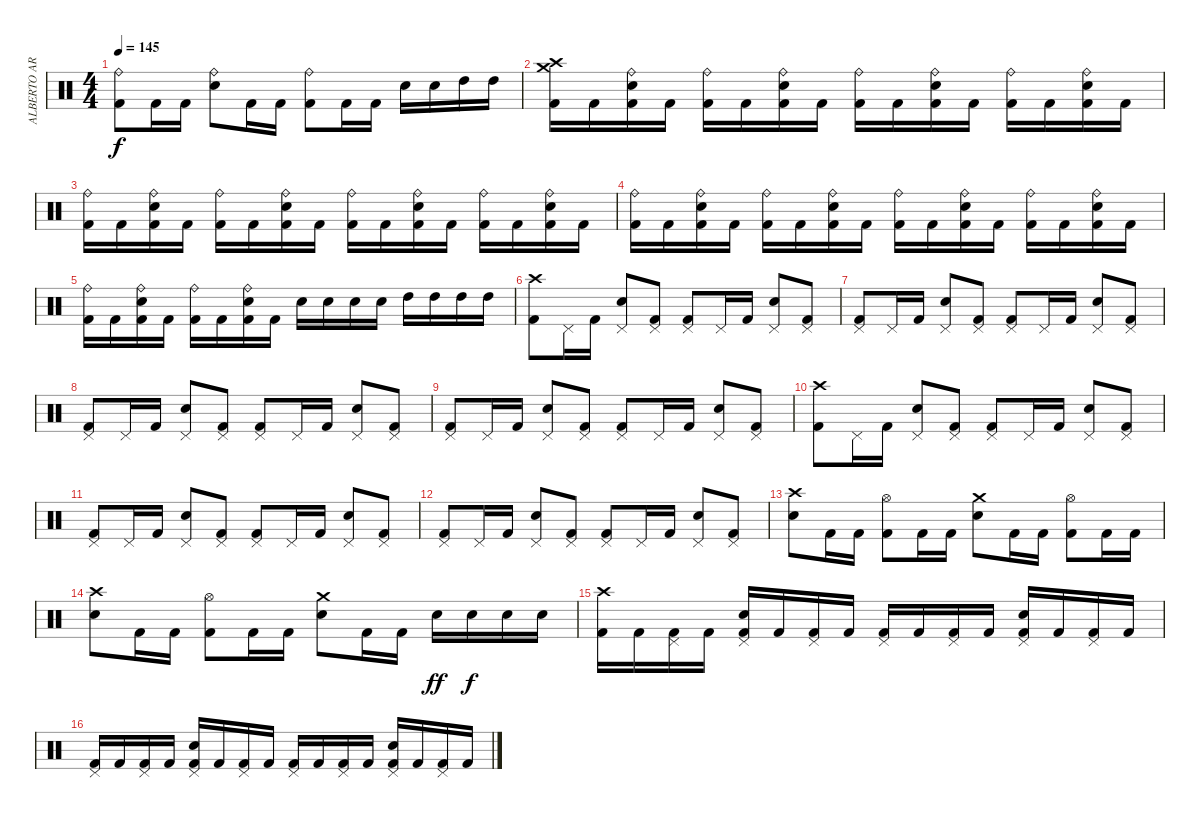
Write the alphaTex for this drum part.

\track ("ALBERTO ARDINES" "ALBERTO AR") {instrument percussion}
\staff {score}
\articulation defaults
\ts (4 4)
\tempo 145
\clef neutral
\ks c
("Ride (bell)" "Kick (hit) 2").8{dy f} "Kick (hit) 2".16 "Kick (hit) 2".16 ("Ride (bell)" "Electric Snare (hit)").8 "Kick (hit) 2".16 "Kick (hit) 2".16 ("Ride (bell)" "Kick (hit) 2").8 "Kick (hit) 2".16 "Kick (hit) 2".16 "Electric Snare (hit)".16 "Electric Snare (hit)".16 "High Tom (hit)".16 "High Tom (hit)".16 |
("Crash high (hit)" "Crash medium (hit)" "Kick (hit) 2").16 "Kick (hit) 2".16 ("Ride (bell)" "Electric Snare (hit)" "Kick (hit) 2").16 "Kick (hit) 2".16 ("Ride (bell)" "Kick (hit) 2").16 "Kick (hit) 2".16 ("Ride (bell)" "Electric Snare (hit)" "Kick (hit) 2").16 "Kick (hit) 2".16 ("Ride (bell)" "Kick (hit) 2").16 "Kick (hit) 2".16 ("Ride (bell)" "Electric Snare (hit)" "Kick (hit) 2").16 "Kick (hit) 2".16 ("Ride (bell)" "Kick (hit) 2").16 "Kick (hit) 2".16 ("Ride (bell)" "Electric Snare (hit)" "Kick (hit) 2").16 "Kick (hit) 2".16 |
("Ride (bell)" "Kick (hit) 2").16 "Kick (hit) 2".16 ("Ride (bell)" "Electric Snare (hit)" "Kick (hit) 2").16 "Kick (hit) 2".16 ("Ride (bell)" "Kick (hit) 2").16 "Kick (hit) 2".16 ("Ride (bell)" "Electric Snare (hit)" "Kick (hit) 2").16 "Kick (hit) 2".16 ("Ride (bell)" "Kick (hit) 2").16 "Kick (hit) 2".16 ("Ride (bell)" "Electric Snare (hit)" "Kick (hit) 2").16 "Kick (hit) 2".16 ("Ride (bell)" "Kick (hit) 2").16 "Kick (hit) 2".16 ("Ride (bell)" "Electric Snare (hit)" "Kick (hit) 2").16 "Kick (hit) 2".16 |
("Ride (bell)" "Kick (hit) 2").16 "Kick (hit) 2".16 ("Ride (bell)" "Electric Snare (hit)" "Kick (hit) 2").16 "Kick (hit) 2".16 ("Ride (bell)" "Kick (hit) 2").16 "Kick (hit) 2".16 ("Ride (bell)" "Electric Snare (hit)" "Kick (hit) 2").16 "Kick (hit) 2".16 ("Ride (bell)" "Kick (hit) 2").16 "Kick (hit) 2".16 ("Ride (bell)" "Electric Snare (hit)" "Kick (hit) 2").16 "Kick (hit) 2".16 ("Ride (bell)" "Kick (hit) 2").16 "Kick (hit) 2".16 ("Ride (bell)" "Electric Snare (hit)" "Kick (hit) 2").16 "Kick (hit) 2".16 |
("Ride (bell)" "Kick (hit) 2").16 "Kick (hit) 2".16 ("Ride (bell)" "Electric Snare (hit)" "Kick (hit) 2").16 "Kick (hit) 2".16 ("Ride (bell)" "Kick (hit) 2").16 "Kick (hit) 2".16 ("Ride (bell)" "Electric Snare (hit)" "Kick (hit) 2").16 "Kick (hit) 2".16 "Electric Snare (hit)".16 "Electric Snare (hit)".16 "Electric Snare (hit)".16 "Electric Snare (hit)".16 "High Tom (hit)".16 "High Tom (hit)".16 "High Tom (hit)".16 "High Tom (hit)".16 |
("Crash high (hit)" "Kick (hit) 2").8 "Pedal Hi-Hat (hit)".16 "Kick (hit) 2".16 ("Pedal Hi-Hat (hit)" "Electric Snare (hit)").8 ("Pedal Hi-Hat (hit)" "Kick (hit) 2").8 ("Pedal Hi-Hat (hit)" "Kick (hit) 2").8 "Pedal Hi-Hat (hit)".16 "Kick (hit) 2".16 ("Pedal Hi-Hat (hit)" "Electric Snare (hit)").8 ("Pedal Hi-Hat (hit)" "Kick (hit) 2").8 |
("Pedal Hi-Hat (hit)" "Kick (hit) 2").8 "Pedal Hi-Hat (hit)".16 "Kick (hit) 2".16 ("Pedal Hi-Hat (hit)" "Electric Snare (hit)").8 ("Pedal Hi-Hat (hit)" "Kick (hit) 2").8 ("Pedal Hi-Hat (hit)" "Kick (hit) 2").8 "Pedal Hi-Hat (hit)".16 "Kick (hit) 2".16 ("Pedal Hi-Hat (hit)" "Electric Snare (hit)").8 ("Pedal Hi-Hat (hit)" "Kick (hit) 2").8 |
("Pedal Hi-Hat (hit)" "Kick (hit) 2").8 "Pedal Hi-Hat (hit)".16 "Kick (hit) 2".16 ("Pedal Hi-Hat (hit)" "Electric Snare (hit)").8 ("Pedal Hi-Hat (hit)" "Kick (hit) 2").8 ("Pedal Hi-Hat (hit)" "Kick (hit) 2").8 "Pedal Hi-Hat (hit)".16 "Kick (hit) 2".16 ("Pedal Hi-Hat (hit)" "Electric Snare (hit)").8 ("Pedal Hi-Hat (hit)" "Kick (hit) 2").8 |
("Pedal Hi-Hat (hit)" "Kick (hit) 2").8 "Pedal Hi-Hat (hit)".16 "Kick (hit) 2".16 ("Pedal Hi-Hat (hit)" "Electric Snare (hit)").8 ("Pedal Hi-Hat (hit)" "Kick (hit) 2").8 ("Pedal Hi-Hat (hit)" "Kick (hit) 2").8 "Pedal Hi-Hat (hit)".16 "Kick (hit) 2".16 ("Pedal Hi-Hat (hit)" "Electric Snare (hit)").8 ("Pedal Hi-Hat (hit)" "Kick (hit) 2").8 |
("Crash high (hit)" "Kick (hit) 2").8 "Pedal Hi-Hat (hit)".16 "Kick (hit) 2".16 ("Pedal Hi-Hat (hit)" "Electric Snare (hit)").8 ("Pedal Hi-Hat (hit)" "Kick (hit) 2").8 ("Pedal Hi-Hat (hit)" "Kick (hit) 2").8 "Pedal Hi-Hat (hit)".16 "Kick (hit) 2".16 ("Pedal Hi-Hat (hit)" "Electric Snare (hit)").8 ("Pedal Hi-Hat (hit)" "Kick (hit) 2").8 |
("Pedal Hi-Hat (hit)" "Kick (hit) 2").8 "Pedal Hi-Hat (hit)".16 "Kick (hit) 2".16 ("Pedal Hi-Hat (hit)" "Electric Snare (hit)").8 ("Pedal Hi-Hat (hit)" "Kick (hit) 2").8 ("Pedal Hi-Hat (hit)" "Kick (hit) 2").8 "Pedal Hi-Hat (hit)".16 "Kick (hit) 2".16 ("Pedal Hi-Hat (hit)" "Electric Snare (hit)").8 ("Pedal Hi-Hat (hit)" "Kick (hit) 2").8 |
("Pedal Hi-Hat (hit)" "Kick (hit) 2").8 "Pedal Hi-Hat (hit)".16 "Kick (hit) 2".16 ("Pedal Hi-Hat (hit)" "Electric Snare (hit)").8 ("Pedal Hi-Hat (hit)" "Kick (hit) 2").8 ("Pedal Hi-Hat (hit)" "Kick (hit) 2").8 "Pedal Hi-Hat (hit)".16 "Kick (hit) 2".16 ("Pedal Hi-Hat (hit)" "Electric Snare (hit)").8 ("Pedal Hi-Hat (hit)" "Kick (hit) 2").8 |
("Crash high (hit)" "Electric Snare (hit)").8 "Kick (hit) 2".16 "Kick (hit) 2".16 ("Hi-Hat (open)" "Kick (hit) 2").8 "Kick (hit) 2".16 "Kick (hit) 2".16 ("Crash medium (hit)" "Electric Snare (hit)").8 "Kick (hit) 2".16 "Kick (hit) 2".16 ("Hi-Hat (open)" "Kick (hit) 2").8 "Kick (hit) 2".16 "Kick (hit) 2".16 |
("Crash high (hit)" "Electric Snare (hit)").8 "Kick (hit) 2".16 "Kick (hit) 2".16 ("Hi-Hat (open)" "Kick (hit) 2").8 "Kick (hit) 2".16 "Kick (hit) 2".16 ("Crash medium (hit)" "Electric Snare (hit)").8 "Kick (hit) 2".16 "Kick (hit) 2".16 "Electric Snare (hit)".16{dy ff} "Electric Snare (hit)".16{dy f} "Electric Snare (hit)".16 "Electric Snare (hit)".16 |
("Crash high (hit)" "Kick (hit) 2").16 "Kick (hit) 2".16 ("Pedal Hi-Hat (hit)" "Kick (hit) 2").16 "Kick (hit) 2".16 ("Pedal Hi-Hat (hit)" "Electric Snare (hit)" "Kick (hit) 2").16 "Kick (hit) 2".16 ("Pedal Hi-Hat (hit)" "Kick (hit) 2").16 "Kick (hit) 2".16 ("Pedal Hi-Hat (hit)" "Kick (hit) 2").16 "Kick (hit) 2".16 ("Pedal Hi-Hat (hit)" "Kick (hit) 2").16 "Kick (hit) 2".16 ("Pedal Hi-Hat (hit)" "Electric Snare (hit)" "Kick (hit) 2").16 "Kick (hit) 2".16 ("Pedal Hi-Hat (hit)" "Kick (hit) 2").16 "Kick (hit) 2".16 |
("Pedal Hi-Hat (hit)" "Kick (hit) 2").16 "Kick (hit) 2".16 ("Pedal Hi-Hat (hit)" "Kick (hit) 2").16 "Kick (hit) 2".16 ("Pedal Hi-Hat (hit)" "Electric Snare (hit)" "Kick (hit) 2").16 "Kick (hit) 2".16 ("Pedal Hi-Hat (hit)" "Kick (hit) 2").16 "Kick (hit) 2".16 ("Pedal Hi-Hat (hit)" "Kick (hit) 2").16 "Kick (hit) 2".16 ("Pedal Hi-Hat (hit)" "Kick (hit) 2").16 "Kick (hit) 2".16 ("Pedal Hi-Hat (hit)" "Electric Snare (hit)" "Kick (hit) 2").16 "Kick (hit) 2".16 ("Pedal Hi-Hat (hit)" "Kick (hit) 2").16 "Kick (hit) 2".16
